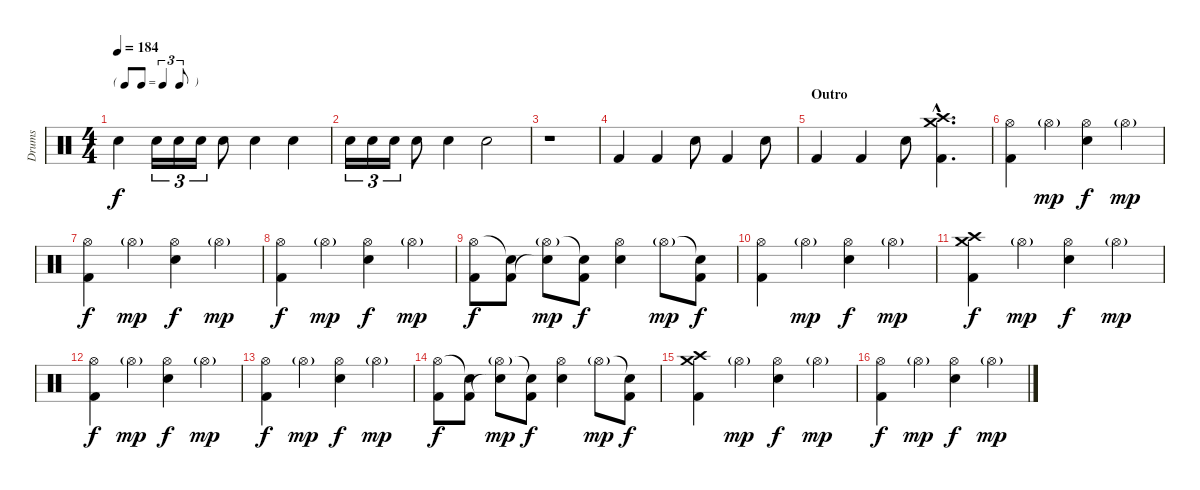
\track ("Drums" "Drums") {instrument percussion}
\staff {score}
\articulation defaults
\ts (4 4)
\tf triplet8th
\tempo 184
\clef neutral
\ks c "Electric Snare (hit)".4{dy f} "Electric Snare (hit)".16{tu (3 2)} "Electric Snare (hit)".16{tu (3 2)} "Electric Snare (hit)".16{tu (3 2)} "Electric Snare (hit)".8 "Electric Snare (hit)".4 "Electric Snare (hit)".4
|
"Electric Snare (hit)".16{tu (3 2)} "Electric Snare (hit)".16{tu (3 2)} "Electric Snare (hit)".16{tu (3 2)} "Electric Snare (hit)".8 "Electric Snare (hit)".4 "Electric Snare (hit)".2 |
r.1 |
"Kick (hit) 2".4 "Kick (hit) 2".4 "Electric Snare (hit)".8 "Kick (hit) 2".4 "Electric Snare (hit)".8 |
\section ("" "Outro")
"Kick (hit) 2".4 "Kick (hit) 2".4 "Electric Snare (hit)".8 ("Crash high (hit)"{hac} "Crash medium (hit)"{hac} "Kick (hit) 2"{hac}).4{d} |
("Hi-Hat (open)" "Kick (hit) 2").4{volume 7} "Hi-Hat (open)"{g}.4{dy mp} ("Hi-Hat (open)" "Electric Snare (hit)").4{dy f} "Hi-Hat (open)"{g}.4{dy mp} |
("Hi-Hat (open)" "Kick (hit) 2").4{dy f} "Hi-Hat (open)"{g}.4{dy mp} ("Hi-Hat (open)" "Electric Snare (hit)").4{dy f} "Hi-Hat (open)"{g}.4{dy mp} |
("Hi-Hat (open)" "Kick (hit) 2").4{dy f} "Hi-Hat (open)"{g}.4{dy mp} ("Hi-Hat (open)" "Electric Snare (hit)").4{dy f} "Hi-Hat (open)"{g}.4{dy mp} |
("Hi-Hat (open)" "Kick (hit) 2").8{dy f} ("Snare (hit)"{t} "Kick (hit) 2").8 ("Hi-Hat (open)"{g} "Snare (hit)"{t}).8{dy mp} ("Snare (hit)"{t} "Kick (hit) 2").8{dy f} ("Hi-Hat (open)" "Electric Snare (hit)").4 "Hi-Hat (open)"{g}.8{dy mp} ("Snare (hit)"{t} "Kick (hit) 2").8{dy f} |
("Hi-Hat (open)" "Kick (hit) 2").4{volume 4} "Hi-Hat (open)"{g}.4{dy mp} ("Hi-Hat (open)" "Electric Snare (hit)").4{dy f} "Hi-Hat (open)"{g}.4{dy mp} |
("Crash high (hit)" "Crash medium (hit)" "Kick (hit) 2").4{dy f} "Hi-Hat (open)"{g}.4{dy mp} ("Hi-Hat (open)" "Electric Snare (hit)").4{dy f} "Hi-Hat (open)"{g}.4{dy mp} |
("Hi-Hat (open)" "Kick (hit) 2").4{dy f} "Hi-Hat (open)"{g}.4{dy mp} ("Hi-Hat (open)" "Electric Snare (hit)").4{dy f} "Hi-Hat (open)"{g}.4{dy mp} |
("Hi-Hat (open)" "Kick (hit) 2").4{dy f} "Hi-Hat (open)"{g}.4{dy mp} ("Hi-Hat (open)" "Electric Snare (hit)").4{dy f} "Hi-Hat (open)"{g}.4{dy mp} |
("Hi-Hat (open)" "Kick (hit) 2").8{dy f volume 2} ("Snare (hit)"{t} "Kick (hit) 2").8 ("Hi-Hat (open)"{g} "Snare (hit)"{t}).8{dy mp} ("Snare (hit)"{t} "Kick (hit) 2").8{dy f} ("Hi-Hat (open)" "Electric Snare (hit)").4 "Hi-Hat (open)"{g}.8{dy mp} ("Snare (hit)"{t} "Kick (hit) 2").8{dy f} |
("Crash high (hit)" "Crash medium (hit)" "Kick (hit) 2").4 "Hi-Hat (open)"{g}.4{dy mp} ("Hi-Hat (open)" "Electric Snare (hit)").4{dy f} "Hi-Hat (open)"{g}.4{dy mp} |
("Hi-Hat (open)" "Kick (hit) 2").4{dy f} "Hi-Hat (open)"{g}.4{dy mp} ("Hi-Hat (open)" "Electric Snare (hit)").4{dy f} "Hi-Hat (open)"{g}.4{dy mp}
